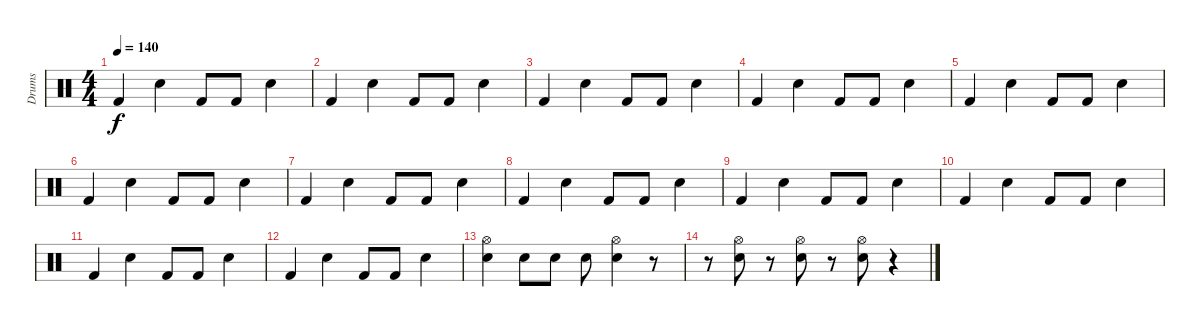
\track ("Drums" "Drums") {instrument percussion}
\staff {score}
\articulation defaults
\ts (4 4)
\tempo 140
\clef neutral
\ks c "Kick (hit) 2".4{dy f} "Snare (hit) 2".4 "Kick (hit) 2".8 "Kick (hit) 2".8 "Snare (hit) 2".4
|
"Kick (hit) 2".4 "Snare (hit) 2".4 "Kick (hit) 2".8 "Kick (hit) 2".8 "Snare (hit) 2".4 |
"Kick (hit) 2".4 "Snare (hit) 2".4 "Kick (hit) 2".8 "Kick (hit) 2".8 "Snare (hit) 2".4 |
"Kick (hit) 2".4 "Snare (hit) 2".4 "Kick (hit) 2".8 "Kick (hit) 2".8 "Snare (hit) 2".4 |
"Kick (hit) 2".4 "Snare (hit) 2".4 "Kick (hit) 2".8 "Kick (hit) 2".8 "Snare (hit) 2".4 |
"Kick (hit) 2".4 "Snare (hit) 2".4 "Kick (hit) 2".8 "Kick (hit) 2".8 "Snare (hit) 2".4 |
"Kick (hit) 2".4 "Snare (hit) 2".4 "Kick (hit) 2".8 "Kick (hit) 2".8 "Snare (hit) 2".4 |
"Kick (hit) 2".4 "Snare (hit) 2".4 "Kick (hit) 2".8 "Kick (hit) 2".8 "Snare (hit) 2".4 |
"Kick (hit) 2".4 "Snare (hit) 2".4 "Kick (hit) 2".8 "Kick (hit) 2".8 "Snare (hit) 2".4 |
"Kick (hit) 2".4 "Snare (hit) 2".4 "Kick (hit) 2".8 "Kick (hit) 2".8 "Snare (hit) 2".4 |
"Kick (hit) 2".4 "Snare (hit) 2".4 "Kick (hit) 2".8 "Kick (hit) 2".8 "Snare (hit) 2".4 |
"Kick (hit) 2".4 "Snare (hit) 2".4 "Kick (hit) 2".8 "Kick (hit) 2".8 "Snare (hit) 2".4 |
("Snare (hit) 2" "Hi-Hat (open)").4 "Snare (hit) 2".8 "Snare (hit) 2".8 "Snare (hit) 2".8 ("Snare (hit) 2" "Hi-Hat (open)").4 r.8 |
r.8 ("Snare (hit) 2" "Hi-Hat (open)").8 r.8 ("Snare (hit) 2" "Hi-Hat (open)").8 r.8 ("Snare (hit) 2" "Hi-Hat (open)").8 r.4
